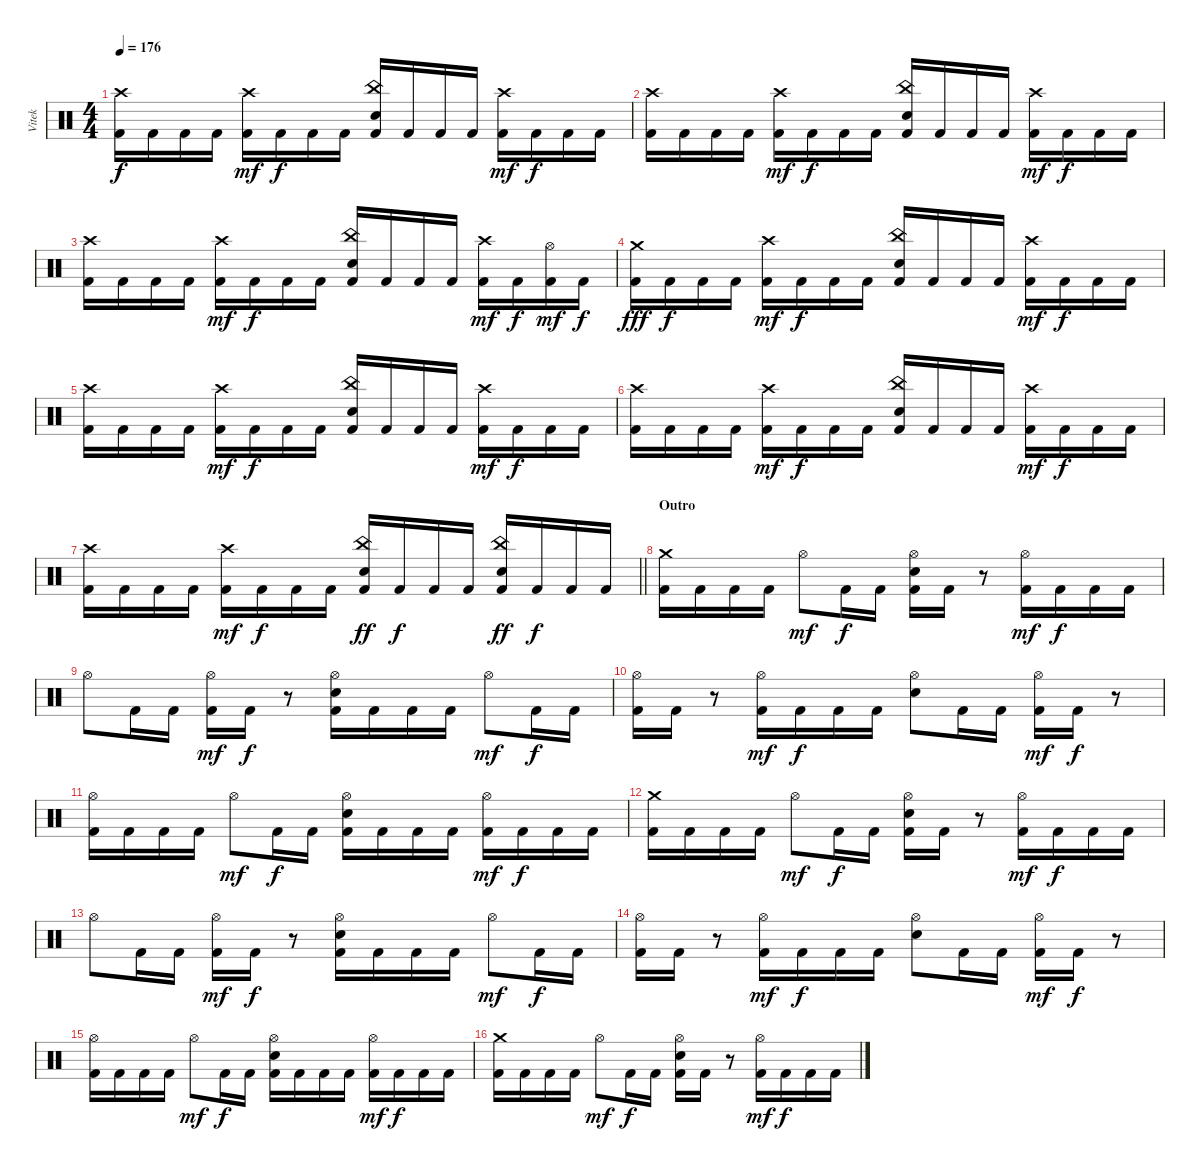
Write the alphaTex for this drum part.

\track ("Vitek" "Vitek") {instrument percussion}
\staff {score}
\articulation defaults
\ts (4 4)
\tempo 176
\clef neutral
\ks c
("Crash high (hit)" "Kick (hit) 2").16{dy f} "Kick (hit) 2".16 "Kick (hit) 2".16 "Kick (hit) 2".16 ("Crash high (hit)" "Kick (hit) 2").16{dy mf} "Kick (hit) 2".16{dy f} "Kick (hit) 2".16 "Kick (hit) 2".16 ("China (hit)" "Electric Snare (hit)" "Kick (hit) 2").16 "Kick (hit) 2".16 "Kick (hit) 2".16 "Kick (hit) 2".16 ("Crash high (hit)" "Kick (hit) 2").16{dy mf} "Kick (hit) 2".16{dy f} "Kick (hit) 2".16 "Kick (hit) 2".16 |
("Crash high (hit)" "Kick (hit) 2").16 "Kick (hit) 2".16 "Kick (hit) 2".16 "Kick (hit) 2".16 ("Crash high (hit)" "Kick (hit) 2").16{dy mf} "Kick (hit) 2".16{dy f} "Kick (hit) 2".16 "Kick (hit) 2".16 ("China (hit)" "Electric Snare (hit)" "Kick (hit) 2").16 "Kick (hit) 2".16 "Kick (hit) 2".16 "Kick (hit) 2".16 ("Crash high (hit)" "Kick (hit) 2").16{dy mf} "Kick (hit) 2".16{dy f} "Kick (hit) 2".16 "Kick (hit) 2".16 |
("Crash high (hit)" "Kick (hit) 2").16 "Kick (hit) 2".16 "Kick (hit) 2".16 "Kick (hit) 2".16 ("Crash high (hit)" "Kick (hit) 2").16{dy mf} "Kick (hit) 2".16{dy f} "Kick (hit) 2".16 "Kick (hit) 2".16 ("China (hit)" "Electric Snare (hit)" "Kick (hit) 2").16 "Kick (hit) 2".16 "Kick (hit) 2".16 "Kick (hit) 2".16 ("Crash high (hit)" "Kick (hit) 2").16{dy mf} "Kick (hit) 2".16{dy f} ("Hi-Hat (open)" "Kick (hit) 2").16{dy mf} "Kick (hit) 2".16{dy f} |
("Crash medium (hit)" "Kick (hit) 2").16{dy fff} "Kick (hit) 2".16{dy f} "Kick (hit) 2".16 "Kick (hit) 2".16 ("Crash high (hit)" "Kick (hit) 2").16{dy mf} "Kick (hit) 2".16{dy f} "Kick (hit) 2".16 "Kick (hit) 2".16 ("China (hit)" "Electric Snare (hit)" "Kick (hit) 2").16 "Kick (hit) 2".16 "Kick (hit) 2".16 "Kick (hit) 2".16 ("Crash high (hit)" "Kick (hit) 2").16{dy mf} "Kick (hit) 2".16{dy f} "Kick (hit) 2".16 "Kick (hit) 2".16 |
("Crash high (hit)" "Kick (hit) 2").16 "Kick (hit) 2".16 "Kick (hit) 2".16 "Kick (hit) 2".16 ("Crash high (hit)" "Kick (hit) 2").16{dy mf} "Kick (hit) 2".16{dy f} "Kick (hit) 2".16 "Kick (hit) 2".16 ("China (hit)" "Electric Snare (hit)" "Kick (hit) 2").16 "Kick (hit) 2".16 "Kick (hit) 2".16 "Kick (hit) 2".16 ("Crash high (hit)" "Kick (hit) 2").16{dy mf} "Kick (hit) 2".16{dy f} "Kick (hit) 2".16 "Kick (hit) 2".16 |
("Crash high (hit)" "Kick (hit) 2").16 "Kick (hit) 2".16 "Kick (hit) 2".16 "Kick (hit) 2".16 ("Crash high (hit)" "Kick (hit) 2").16{dy mf} "Kick (hit) 2".16{dy f} "Kick (hit) 2".16 "Kick (hit) 2".16 ("China (hit)" "Electric Snare (hit)" "Kick (hit) 2").16 "Kick (hit) 2".16 "Kick (hit) 2".16 "Kick (hit) 2".16 ("Crash high (hit)" "Kick (hit) 2").16{dy mf} "Kick (hit) 2".16{dy f} "Kick (hit) 2".16 "Kick (hit) 2".16 |
\barLineRight lightlight
("Crash high (hit)" "Kick (hit) 2").16 "Kick (hit) 2".16 "Kick (hit) 2".16 "Kick (hit) 2".16 ("Crash high (hit)" "Kick (hit) 2").16{dy mf} "Kick (hit) 2".16{dy f} "Kick (hit) 2".16 "Kick (hit) 2".16 ("China (hit)" "Electric Snare (hit)" "Kick (hit) 2").16{dy ff} "Kick (hit) 2".16{dy f} "Kick (hit) 2".16 "Kick (hit) 2".16 ("China (hit)" "Electric Snare (hit)" "Kick (hit) 2").16{dy ff} "Kick (hit) 2".16{dy f} "Kick (hit) 2".16 "Kick (hit) 2".16 |
\section ("" "Outro")
("Crash medium (hit)" "Kick (hit) 2").16 "Kick (hit) 2".16 "Kick (hit) 2".16 "Kick (hit) 2".16 "Hi-Hat (open)".8{dy mf} "Kick (hit) 2".16{dy f} "Kick (hit) 2".16 ("Hi-Hat (open)" "Electric Snare (hit)" "Kick (hit) 2").16 "Kick (hit) 2".16 r.8 ("Hi-Hat (open)" "Kick (hit) 2").16{dy mf} "Kick (hit) 2".16{dy f} "Kick (hit) 2".16 "Kick (hit) 2".16 |
"Hi-Hat (open)".8 "Kick (hit) 2".16 "Kick (hit) 2".16 ("Hi-Hat (open)" "Kick (hit) 2").16{dy mf} "Kick (hit) 2".16{dy f} r.8 ("Hi-Hat (open)" "Electric Snare (hit)" "Kick (hit) 2").16 "Kick (hit) 2".16 "Kick (hit) 2".16 "Kick (hit) 2".16 "Hi-Hat (open)".8{dy mf} "Kick (hit) 2".16{dy f} "Kick (hit) 2".16 |
("Hi-Hat (open)" "Kick (hit) 2").16 "Kick (hit) 2".16 r.8 ("Hi-Hat (open)" "Kick (hit) 2").16{dy mf} "Kick (hit) 2".16{dy f} "Kick (hit) 2".16 "Kick (hit) 2".16 ("Hi-Hat (open)" "Electric Snare (hit)").8 "Kick (hit) 2".16 "Kick (hit) 2".16 ("Hi-Hat (open)" "Kick (hit) 2").16{dy mf} "Kick (hit) 2".16{dy f} r.8 |
("Hi-Hat (open)" "Kick (hit) 2").16 "Kick (hit) 2".16 "Kick (hit) 2".16 "Kick (hit) 2".16 "Hi-Hat (open)".8{dy mf} "Kick (hit) 2".16{dy f} "Kick (hit) 2".16 ("Hi-Hat (open)" "Electric Snare (hit)" "Kick (hit) 2").16 "Kick (hit) 2".16 "Kick (hit) 2".16 "Kick (hit) 2".16 ("Hi-Hat (open)" "Kick (hit) 2").16{dy mf} "Kick (hit) 2".16{dy f} "Kick (hit) 2".16 "Kick (hit) 2".16 |
("Crash medium (hit)" "Kick (hit) 2").16 "Kick (hit) 2".16 "Kick (hit) 2".16 "Kick (hit) 2".16 "Hi-Hat (open)".8{dy mf} "Kick (hit) 2".16{dy f} "Kick (hit) 2".16 ("Hi-Hat (open)" "Electric Snare (hit)" "Kick (hit) 2").16 "Kick (hit) 2".16 r.8 ("Hi-Hat (open)" "Kick (hit) 2").16{dy mf} "Kick (hit) 2".16{dy f} "Kick (hit) 2".16 "Kick (hit) 2".16 |
"Hi-Hat (open)".8 "Kick (hit) 2".16 "Kick (hit) 2".16 ("Hi-Hat (open)" "Kick (hit) 2").16{dy mf} "Kick (hit) 2".16{dy f} r.8 ("Hi-Hat (open)" "Electric Snare (hit)" "Kick (hit) 2").16 "Kick (hit) 2".16 "Kick (hit) 2".16 "Kick (hit) 2".16 "Hi-Hat (open)".8{dy mf} "Kick (hit) 2".16{dy f} "Kick (hit) 2".16 |
("Hi-Hat (open)" "Kick (hit) 2").16 "Kick (hit) 2".16 r.8 ("Hi-Hat (open)" "Kick (hit) 2").16{dy mf} "Kick (hit) 2".16{dy f} "Kick (hit) 2".16 "Kick (hit) 2".16 ("Hi-Hat (open)" "Electric Snare (hit)").8 "Kick (hit) 2".16 "Kick (hit) 2".16 ("Hi-Hat (open)" "Kick (hit) 2").16{dy mf} "Kick (hit) 2".16{dy f} r.8 |
("Hi-Hat (open)" "Kick (hit) 2").16 "Kick (hit) 2".16 "Kick (hit) 2".16 "Kick (hit) 2".16 "Hi-Hat (open)".8{dy mf} "Kick (hit) 2".16{dy f} "Kick (hit) 2".16 ("Hi-Hat (open)" "Electric Snare (hit)" "Kick (hit) 2").16 "Kick (hit) 2".16 "Kick (hit) 2".16 "Kick (hit) 2".16 ("Hi-Hat (open)" "Kick (hit) 2").16{dy mf} "Kick (hit) 2".16{dy f} "Kick (hit) 2".16 "Kick (hit) 2".16 |
("Crash medium (hit)" "Kick (hit) 2").16 "Kick (hit) 2".16 "Kick (hit) 2".16 "Kick (hit) 2".16 "Hi-Hat (open)".8{dy mf} "Kick (hit) 2".16{dy f} "Kick (hit) 2".16 ("Hi-Hat (open)" "Electric Snare (hit)" "Kick (hit) 2").16 "Kick (hit) 2".16 r.8 ("Hi-Hat (open)" "Kick (hit) 2").16{dy mf} "Kick (hit) 2".16{dy f} "Kick (hit) 2".16 "Kick (hit) 2".16
